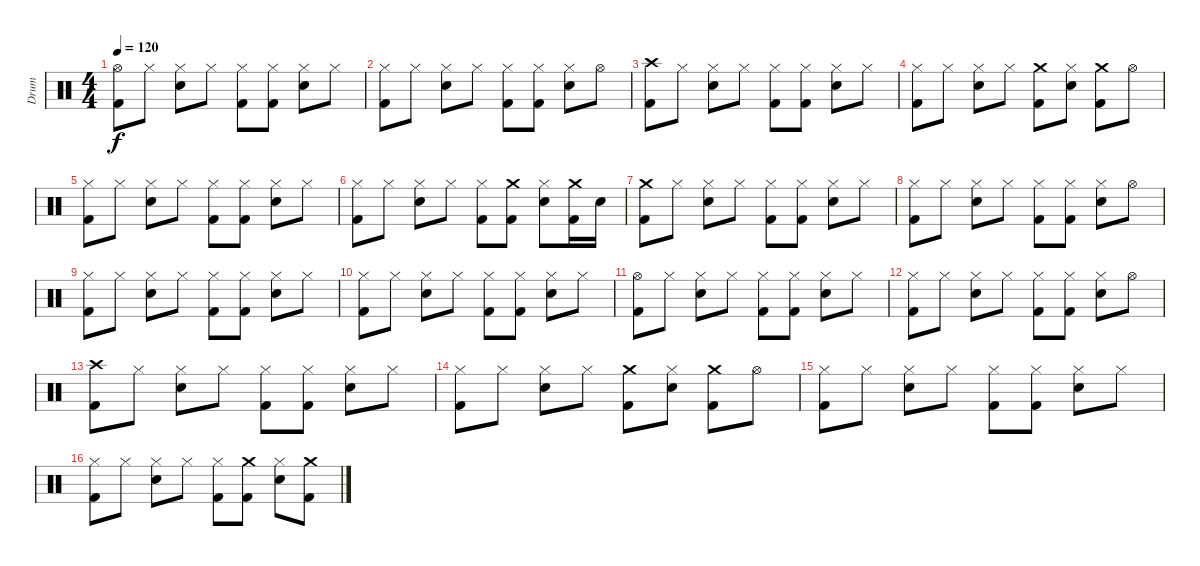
\track ("Drum" "Drum") {instrument percussion}
\staff {score}
\articulation defaults
\ts (4 4)
\tempo 120
\clef neutral
\ks c
("Hi-Hat (open)" "Kick (hit) 2").8{dy f} "Hi-Hat (closed)".8 ("Hi-Hat (closed)" "Electric Snare (hit)").8 "Hi-Hat (closed)".8 ("Hi-Hat (closed)" "Kick (hit) 2").8 ("Hi-Hat (closed)" "Kick (hit) 2").8 ("Hi-Hat (closed)" "Electric Snare (hit)").8 "Hi-Hat (closed)".8 |
("Hi-Hat (closed)" "Kick (hit) 2").8 "Hi-Hat (closed)".8 ("Hi-Hat (closed)" "Electric Snare (hit)").8 "Hi-Hat (closed)".8 ("Hi-Hat (closed)" "Kick (hit) 2").8 ("Hi-Hat (closed)" "Kick (hit) 2").8 ("Hi-Hat (closed)" "Electric Snare (hit)").8 "Hi-Hat (open)".8 |
("Crash high (hit)" "Kick (hit) 2").8 "Hi-Hat (closed)".8 ("Hi-Hat (closed)" "Electric Snare (hit)").8 "Hi-Hat (closed)".8 ("Hi-Hat (closed)" "Kick (hit) 2").8 ("Hi-Hat (closed)" "Kick (hit) 2").8 ("Hi-Hat (closed)" "Electric Snare (hit)").8 "Hi-Hat (closed)".8 |
("Hi-Hat (closed)" "Kick (hit) 2").8 "Hi-Hat (closed)".8 ("Hi-Hat (closed)" "Electric Snare (hit)").8 "Hi-Hat (closed)".8 ("Crash medium (hit)" "Kick (hit) 2").8 ("Hi-Hat (closed)" "Electric Snare (hit)").8 ("Crash medium (hit)" "Kick (hit) 2").8 "Hi-Hat (open)".8 |
("Hi-Hat (closed)" "Kick (hit) 2").8 "Hi-Hat (closed)".8 ("Hi-Hat (closed)" "Electric Snare (hit)").8 "Hi-Hat (closed)".8 ("Hi-Hat (closed)" "Kick (hit) 2").8 ("Hi-Hat (closed)" "Kick (hit) 2").8 ("Hi-Hat (closed)" "Electric Snare (hit)").8 "Hi-Hat (closed)".8 |
("Hi-Hat (closed)" "Kick (hit) 2").8 "Hi-Hat (closed)".8 ("Hi-Hat (closed)" "Electric Snare (hit)").8 "Hi-Hat (closed)".8 ("Hi-Hat (closed)" "Kick (hit) 2").8 ("Crash medium (hit)" "Kick (hit) 2").8 ("Hi-Hat (closed)" "Electric Snare (hit)").8 ("Crash medium (hit)" "Kick (hit) 2").16 "Electric Snare (hit)".16 |
("Crash medium (hit)" "Kick (hit) 2").8 "Hi-Hat (closed)".8 ("Hi-Hat (closed)" "Electric Snare (hit)").8 "Hi-Hat (closed)".8 ("Hi-Hat (closed)" "Kick (hit) 2").8 ("Hi-Hat (closed)" "Kick (hit) 2").8 ("Hi-Hat (closed)" "Electric Snare (hit)").8 "Hi-Hat (closed)".8 |
("Hi-Hat (closed)" "Kick (hit) 2").8 "Hi-Hat (closed)".8 ("Hi-Hat (closed)" "Electric Snare (hit)").8 "Hi-Hat (closed)".8 ("Hi-Hat (closed)" "Kick (hit) 2").8 ("Hi-Hat (closed)" "Kick (hit) 2").8 ("Hi-Hat (closed)" "Electric Snare (hit)").8 "Hi-Hat (open)".8 |
("Hi-Hat (closed)" "Kick (hit) 2").8 "Hi-Hat (closed)".8 ("Hi-Hat (closed)" "Electric Snare (hit)").8 "Hi-Hat (closed)".8 ("Hi-Hat (closed)" "Kick (hit) 2").8 ("Hi-Hat (closed)" "Kick (hit) 2").8 ("Hi-Hat (closed)" "Electric Snare (hit)").8 "Hi-Hat (closed)".8 |
("Hi-Hat (closed)" "Kick (hit) 2").8 "Hi-Hat (closed)".8 ("Hi-Hat (closed)" "Electric Snare (hit)").8 "Hi-Hat (closed)".8 ("Hi-Hat (closed)" "Kick (hit) 2").8 ("Hi-Hat (closed)" "Kick (hit) 2").8 ("Hi-Hat (closed)" "Electric Snare (hit)").8 "Hi-Hat (closed)".8 |
("Hi-Hat (open)" "Kick (hit) 2").8 "Hi-Hat (closed)".8 ("Hi-Hat (closed)" "Electric Snare (hit)").8 "Hi-Hat (closed)".8 ("Hi-Hat (closed)" "Kick (hit) 2").8 ("Hi-Hat (closed)" "Kick (hit) 2").8 ("Hi-Hat (closed)" "Electric Snare (hit)").8 "Hi-Hat (closed)".8 |
("Hi-Hat (closed)" "Kick (hit) 2").8 "Hi-Hat (closed)".8 ("Hi-Hat (closed)" "Electric Snare (hit)").8 "Hi-Hat (closed)".8 ("Hi-Hat (closed)" "Kick (hit) 2").8 ("Hi-Hat (closed)" "Kick (hit) 2").8 ("Hi-Hat (closed)" "Electric Snare (hit)").8 "Hi-Hat (open)".8 |
("Crash high (hit)" "Kick (hit) 2").8 "Hi-Hat (closed)".8 ("Hi-Hat (closed)" "Electric Snare (hit)").8 "Hi-Hat (closed)".8 ("Hi-Hat (closed)" "Kick (hit) 2").8 ("Hi-Hat (closed)" "Kick (hit) 2").8 ("Hi-Hat (closed)" "Electric Snare (hit)").8 "Hi-Hat (closed)".8 |
("Hi-Hat (closed)" "Kick (hit) 2").8 "Hi-Hat (closed)".8 ("Hi-Hat (closed)" "Electric Snare (hit)").8 "Hi-Hat (closed)".8 ("Crash medium (hit)" "Kick (hit) 2").8 ("Hi-Hat (closed)" "Electric Snare (hit)").8 ("Crash medium (hit)" "Kick (hit) 2").8 "Hi-Hat (open)".8 |
("Hi-Hat (closed)" "Kick (hit) 2").8 "Hi-Hat (closed)".8 ("Hi-Hat (closed)" "Electric Snare (hit)").8 "Hi-Hat (closed)".8 ("Hi-Hat (closed)" "Kick (hit) 2").8 ("Hi-Hat (closed)" "Kick (hit) 2").8 ("Hi-Hat (closed)" "Electric Snare (hit)").8 "Hi-Hat (closed)".8 |
("Hi-Hat (closed)" "Kick (hit) 2").8 "Hi-Hat (closed)".8 ("Hi-Hat (closed)" "Electric Snare (hit)").8 "Hi-Hat (closed)".8 ("Hi-Hat (closed)" "Kick (hit) 2").8 ("Crash medium (hit)" "Kick (hit) 2").8 ("Hi-Hat (closed)" "Electric Snare (hit)").8 ("Crash medium (hit)" "Kick (hit) 2").8
